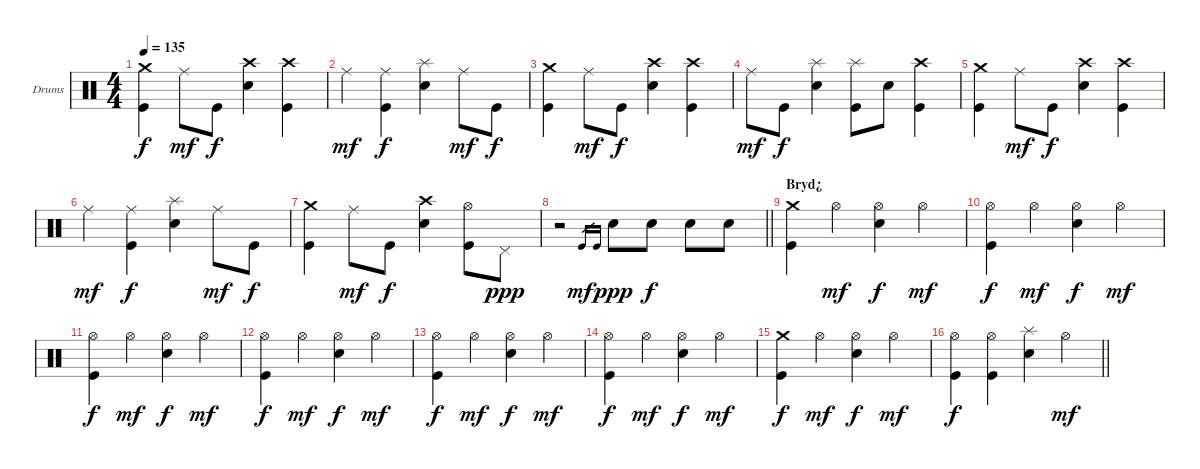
\bracketExtendMode groupsimilarinstruments
\firstSystemTrackNameOrientation horizontal
\otherSystemsTrackNameOrientation horizontal
\track ("Drumkit" "Drums") {instrument percussion}
\staff {score}
\articulation defaults
\ts (4 4)
\tempo 135
\clef neutral
\ks c
("Kick (hit)" "Crash medium (hit)").4{dy f} "Ride (middle)".8{dy mf} "Kick (hit)".8{dy f} ("Snare (hit) 2" "Crash high (hit)").4 ("Kick (hit)" "Crash high (hit)").4 |
"Ride (middle)".4{dy mf} ("Kick (hit)" "Ride (middle)").4{dy f} ("Snare (hit) 2" "Splash (hit)").4 "Ride (middle)".8{dy mf} "Kick (hit)".8{dy f} |
("Kick (hit)" "Crash medium (hit)").4 "Ride (middle)".8{dy mf} "Kick (hit)".8{dy f} ("Snare (hit) 2" "Crash high (hit)").4 ("Kick (hit)" "Crash high (hit)").4 |
"Ride (middle)".8{dy mf} "Kick (hit)".8{dy f} ("Snare (hit) 2" "Splash (hit)").4 ("Kick (hit)" "Splash (hit)").8 "Snare (hit) 2".8 ("Kick (hit)" "Crash high (hit)").4 |
("Kick (hit)" "Crash medium (hit)").4 "Ride (middle)".8{dy mf} "Kick (hit)".8{dy f} ("Snare (hit) 2" "Crash high (hit)").4 ("Kick (hit)" "Crash high (hit)").4 |
"Ride (middle)".4{dy mf} ("Kick (hit)" "Ride (middle)").4{dy f} ("Snare (hit) 2" "Splash (hit)").4 "Ride (middle)".8{dy mf} "Kick (hit)".8{dy f} |
("Kick (hit)" "Crash medium (hit)").4 "Ride (middle)".8{dy mf} "Kick (hit)".8{dy f} ("Snare (hit) 2" "Crash high (hit)").4 ("Kick (hit)" "Hi-Hat (open)").8 "Pedal Hi-Hat (hit)".8{dy ppp} |
\barLineRight lightlight
r.2 "Kick (hit)".16{gr dy mf} "Kick (hit)".16{gr} "Snare (hit) 2".8{dy ppp} "Snare (hit) 2".8{dy f} "Snare (hit) 2".8 "Snare (hit) 2".8 |
\section ("" "Bryd¿")
("Kick (hit)" "Crash medium (hit)").4 "Hi-Hat (open)".4{dy mf} ("Snare (hit) 2" "Hi-Hat (open)").4{dy f} "Hi-Hat (open)".4{dy mf} |
("Kick (hit)" "Hi-Hat (open)").4{dy f} "Hi-Hat (open)".4{dy mf} ("Snare (hit) 2" "Hi-Hat (open)").4{dy f} "Hi-Hat (open)".4{dy mf} |
("Kick (hit)" "Hi-Hat (open)").4{dy f} "Hi-Hat (open)".4{dy mf} ("Snare (hit) 2" "Hi-Hat (open)").4{dy f} "Hi-Hat (open)".4{dy mf} |
("Kick (hit)" "Hi-Hat (open)").4{dy f} "Hi-Hat (open)".4{dy mf} ("Snare (hit) 2" "Hi-Hat (open)").4{dy f} "Hi-Hat (open)".4{dy mf} |
("Kick (hit)" "Hi-Hat (open)").4{dy f} "Hi-Hat (open)".4{dy mf} ("Snare (hit) 2" "Hi-Hat (open)").4{dy f} "Hi-Hat (open)".4{dy mf} |
("Kick (hit)" "Hi-Hat (open)").4{dy f} "Hi-Hat (open)".4{dy mf} ("Snare (hit) 2" "Hi-Hat (open)").4{dy f} "Hi-Hat (open)".4{dy mf} |
("Kick (hit)" "Crash medium (hit)").4{dy f} "Hi-Hat (open)".4{dy mf} ("Snare (hit) 2" "Hi-Hat (open)").4{dy f} "Hi-Hat (open)".4{dy mf} |
\barLineRight lightlight
("Kick (hit)" "Hi-Hat (open)").4{dy f} ("Kick (hit)" "Hi-Hat (open)").4 ("Snare (hit) 2" "Splash (hit)").4 "Hi-Hat (open)".4{dy mf}
